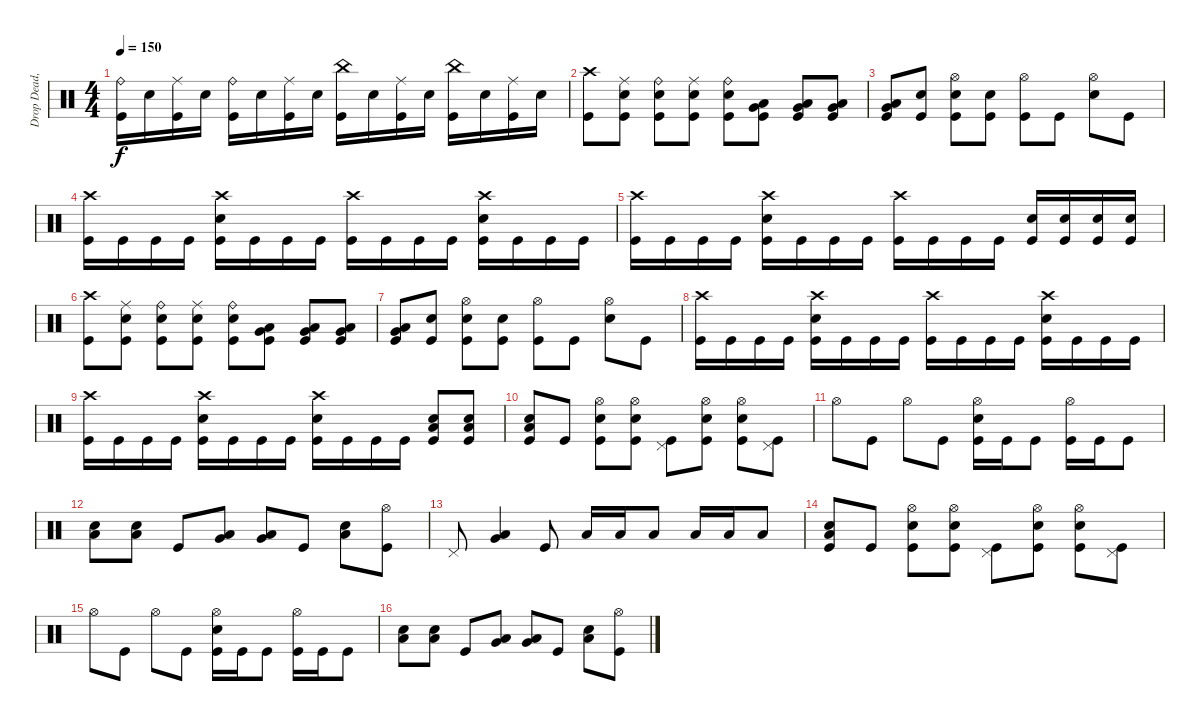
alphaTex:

\track ("Drop Dead, Johnny" "Drop Dead,") {instrument percussion}
\staff {score}
\articulation defaults
\ts (4 4)
\tempo 150
\clef neutral
\ks c
("Ride (bell)" "Kick (hit)").16{dy f} "Electric Snare (hit)".16 ("Ride (middle)" "Kick (hit)").16 "Electric Snare (hit)".16 ("Ride (bell)" "Kick (hit)").16 "Electric Snare (hit)".16 ("Ride (middle)" "Kick (hit)").16 "Electric Snare (hit)".16 ("China (hit)" "Kick (hit)").16 "Electric Snare (hit)".16 ("Ride (middle)" "Kick (hit)").16 "Electric Snare (hit)".16 ("China (hit)" "Kick (hit)").16 "Electric Snare (hit)".16 ("Ride (middle)" "Kick (hit)").16 "Electric Snare (hit)".16 |
("Crash high (hit)" "Kick (hit)").8 ("Ride (middle)" "Electric Snare (hit)" "Kick (hit)").8 ("Ride (bell)" "Electric Snare (hit)" "Kick (hit)").8 ("Ride (middle)" "Electric Snare (hit)" "Kick (hit)").8 ("Ride (bell)" "Electric Snare (hit)" "Kick (hit)").8 ("Very Low Tom (hit)" "Low Floor Tom (hit)" "Kick (hit)").8 ("Very Low Tom (hit)" "Low Floor Tom (hit)" "Kick (hit)").8 ("Very Low Tom (hit)" "Low Floor Tom (hit)" "Kick (hit)").8 |
("Very Low Tom (hit)" "Low Floor Tom (hit)" "Kick (hit)").8 ("Electric Snare (hit)" "Kick (hit)").8 ("Hi-Hat (open)" "Electric Snare (hit)" "Kick (hit)").8 ("Electric Snare (hit)" "Kick (hit)").8 ("Hi-Hat (open)" "Kick (hit)").8 "Kick (hit)".8 ("Hi-Hat (open)" "Electric Snare (hit)").8 "Kick (hit)".8 |
("Crash high (hit)" "Kick (hit)").16 "Kick (hit)".16 "Kick (hit)".16 "Kick (hit)".16 ("Crash high (hit)" "Electric Snare (hit)" "Kick (hit)").16 "Kick (hit)".16 "Kick (hit)".16 "Kick (hit)".16 ("Crash high (hit)" "Kick (hit)").16 "Kick (hit)".16 "Kick (hit)".16 "Kick (hit)".16 ("Crash high (hit)" "Electric Snare (hit)" "Kick (hit)").16 "Kick (hit)".16 "Kick (hit)".16 "Kick (hit)".16 |
("Crash high (hit)" "Kick (hit)").16 "Kick (hit)".16 "Kick (hit)".16 "Kick (hit)".16 ("Crash high (hit)" "Electric Snare (hit)" "Kick (hit)").16 "Kick (hit)".16 "Kick (hit)".16 "Kick (hit)".16 ("Crash high (hit)" "Kick (hit)").16 "Kick (hit)".16 "Kick (hit)".16 "Kick (hit)".16 ("Electric Snare (hit)" "Kick (hit)").16 ("Electric Snare (hit)" "Kick (hit)").16 ("Electric Snare (hit)" "Kick (hit)").16 ("Electric Snare (hit)" "Kick (hit)").16 |
("Crash high (hit)" "Kick (hit)").8 ("Ride (middle)" "Electric Snare (hit)" "Kick (hit)").8 ("Ride (bell)" "Electric Snare (hit)" "Kick (hit)").8 ("Ride (middle)" "Electric Snare (hit)" "Kick (hit)").8 ("Ride (bell)" "Electric Snare (hit)" "Kick (hit)").8 ("Very Low Tom (hit)" "Low Floor Tom (hit)" "Kick (hit)").8 ("Very Low Tom (hit)" "Low Floor Tom (hit)" "Kick (hit)").8 ("Very Low Tom (hit)" "Low Floor Tom (hit)" "Kick (hit)").8 |
("Very Low Tom (hit)" "Low Floor Tom (hit)" "Kick (hit)").8 ("Electric Snare (hit)" "Kick (hit)").8 ("Hi-Hat (open)" "Electric Snare (hit)" "Kick (hit)").8 ("Electric Snare (hit)" "Kick (hit)").8 ("Hi-Hat (open)" "Kick (hit)").8 "Kick (hit)".8 ("Hi-Hat (open)" "Electric Snare (hit)").8 "Kick (hit)".8 |
("Crash high (hit)" "Kick (hit)").16 "Kick (hit)".16 "Kick (hit)".16 "Kick (hit)".16 ("Crash high (hit)" "Electric Snare (hit)" "Kick (hit)").16 "Kick (hit)".16 "Kick (hit)".16 "Kick (hit)".16 ("Crash high (hit)" "Kick (hit)").16 "Kick (hit)".16 "Kick (hit)".16 "Kick (hit)".16 ("Crash high (hit)" "Electric Snare (hit)" "Kick (hit)").16 "Kick (hit)".16 "Kick (hit)".16 "Kick (hit)".16 |
("Crash high (hit)" "Kick (hit)").16 "Kick (hit)".16 "Kick (hit)".16 "Kick (hit)".16 ("Crash high (hit)" "Electric Snare (hit)" "Kick (hit)").16 "Kick (hit)".16 "Kick (hit)".16 "Kick (hit)".16 ("Crash high (hit)" "Electric Snare (hit)" "Kick (hit)").16 "Kick (hit)".16 "Kick (hit)".16 "Kick (hit)".16 ("Low Floor Tom (hit)" "Electric Snare (hit)" "Kick (hit)").8 ("Low Floor Tom (hit)" "Electric Snare (hit)" "Kick (hit)").8 |
("Low Floor Tom (hit)" "Electric Snare (hit)" "Kick (hit)").8 "Kick (hit)".8 ("Hi-Hat (open)" "Electric Snare (hit)" "Kick (hit)").8 ("Hi-Hat (open)" "Electric Snare (hit)" "Kick (hit)").8 ("Pedal Hi-Hat (hit)" "Kick (hit)").8 ("Hi-Hat (open)" "Electric Snare (hit)" "Kick (hit)").8 ("Hi-Hat (open)" "Electric Snare (hit)" "Kick (hit)").8 ("Pedal Hi-Hat (hit)" "Kick (hit)").8 |
"Hi-Hat (open)".8 "Kick (hit)".8 "Hi-Hat (open)".8 "Kick (hit)".8 ("Hi-Hat (open)" "Electric Snare (hit)" "Kick (hit)").16 "Kick (hit)".16 "Kick (hit)".8 ("Hi-Hat (open)" "Kick (hit)").16 "Kick (hit)".16 "Kick (hit)".8 |
("Low Floor Tom (hit)" "Electric Snare (hit)").8 ("Low Floor Tom (hit)" "Electric Snare (hit)").8 "Kick (hit)".8 ("Very Low Tom (hit)" "Low Floor Tom (hit)").8 ("Very Low Tom (hit)" "Low Floor Tom (hit)").8 "Kick (hit)".8 ("Low Floor Tom (hit)" "Electric Snare (hit)").8 ("Hi-Hat (open)" "Kick (hit)").8 |
"Pedal Hi-Hat (hit)".8 ("Very Low Tom (hit)" "Low Floor Tom (hit)").4 "Kick (hit)".8 "Low Floor Tom (hit)".16 "Low Floor Tom (hit)".16 "Low Floor Tom (hit)".8 "Low Floor Tom (hit)".16 "Low Floor Tom (hit)".16 "Low Floor Tom (hit)".8 |
("Low Floor Tom (hit)" "Electric Snare (hit)" "Kick (hit)").8 "Kick (hit)".8 ("Hi-Hat (open)" "Electric Snare (hit)" "Kick (hit)").8 ("Hi-Hat (open)" "Electric Snare (hit)" "Kick (hit)").8 ("Pedal Hi-Hat (hit)" "Kick (hit)").8 ("Hi-Hat (open)" "Electric Snare (hit)" "Kick (hit)").8 ("Hi-Hat (open)" "Electric Snare (hit)" "Kick (hit)").8 ("Pedal Hi-Hat (hit)" "Kick (hit)").8 |
"Hi-Hat (open)".8 "Kick (hit)".8 "Hi-Hat (open)".8 "Kick (hit)".8 ("Hi-Hat (open)" "Electric Snare (hit)" "Kick (hit)").16 "Kick (hit)".16 "Kick (hit)".8 ("Hi-Hat (open)" "Kick (hit)").16 "Kick (hit)".16 "Kick (hit)".8 |
("Low Floor Tom (hit)" "Electric Snare (hit)").8 ("Low Floor Tom (hit)" "Electric Snare (hit)").8 "Kick (hit)".8 ("Very Low Tom (hit)" "Low Floor Tom (hit)").8 ("Very Low Tom (hit)" "Low Floor Tom (hit)").8 "Kick (hit)".8 ("Low Floor Tom (hit)" "Electric Snare (hit)").8 ("Hi-Hat (open)" "Kick (hit)").8
